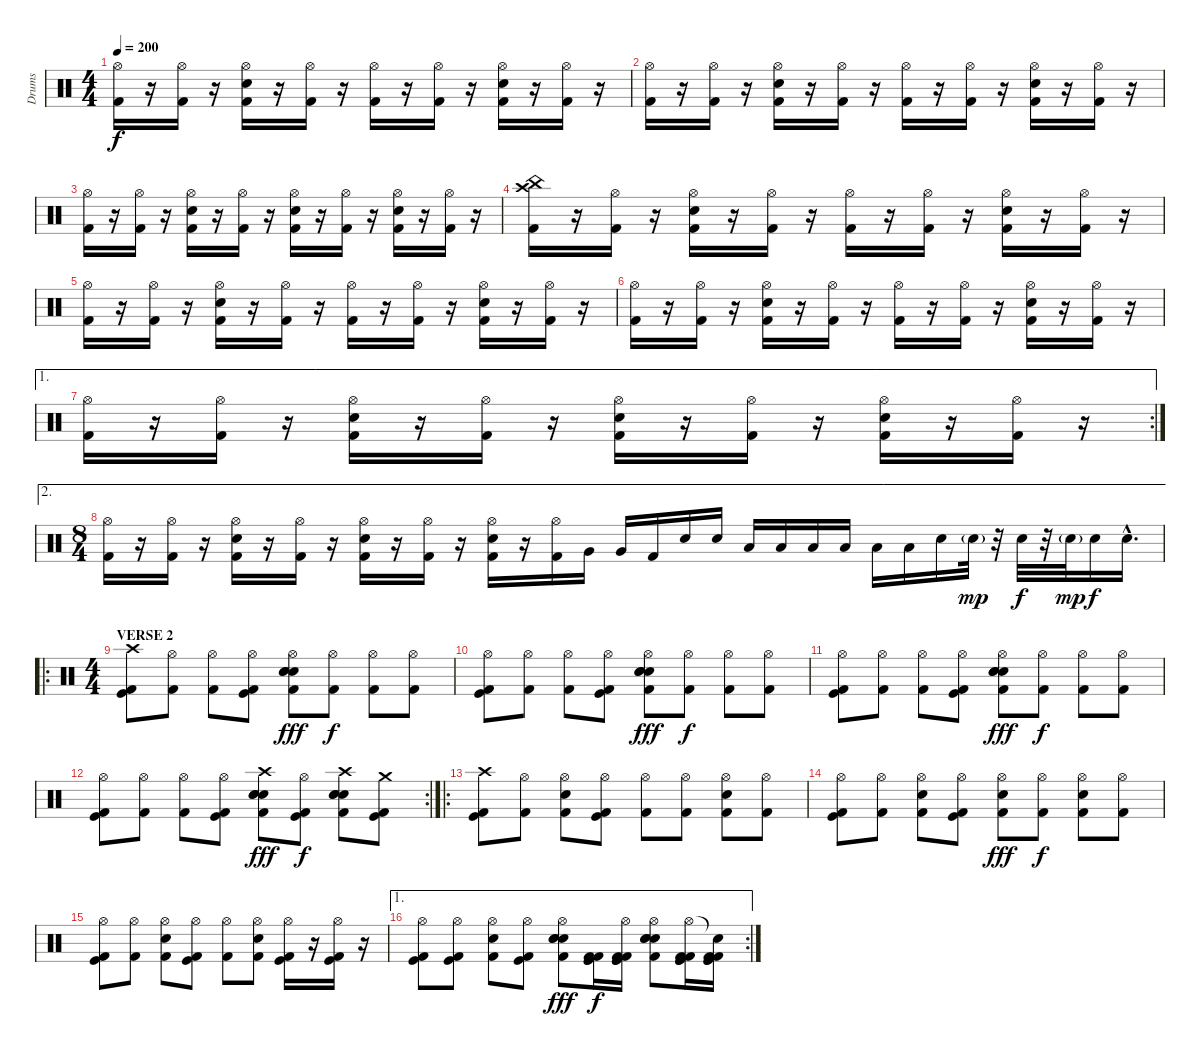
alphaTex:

\track ("Drums" "Drums") {instrument percussion}
\staff {score}
\articulation defaults
\ts (4 4)
\tempo 200
\clef neutral
\ks c
("Hi-Hat (open)" "Kick (hit) 2").16{dy f} r.16 ("Hi-Hat (open)" "Kick (hit) 2").16 r.16 ("Hi-Hat (open)" "Electric Snare (hit)" "Kick (hit) 2").16 r.16 ("Hi-Hat (open)" "Kick (hit) 2").16 r.16 ("Hi-Hat (open)" "Kick (hit) 2").16 r.16 ("Hi-Hat (open)" "Kick (hit) 2").16 r.16 ("Hi-Hat (open)" "Electric Snare (hit)" "Kick (hit) 2").16 r.16 ("Hi-Hat (open)" "Kick (hit) 2").16 r.16 |
("Hi-Hat (open)" "Kick (hit) 2").16 r.16 ("Hi-Hat (open)" "Kick (hit) 2").16 r.16 ("Hi-Hat (open)" "Electric Snare (hit)" "Kick (hit) 2").16 r.16 ("Hi-Hat (open)" "Kick (hit) 2").16 r.16 ("Hi-Hat (open)" "Kick (hit) 2").16 r.16 ("Hi-Hat (open)" "Kick (hit) 2").16 r.16 ("Hi-Hat (open)" "Electric Snare (hit)" "Kick (hit) 2").16 r.16 ("Hi-Hat (open)" "Kick (hit) 2").16 r.16 |
("Hi-Hat (open)" "Kick (hit) 2").16 r.16 ("Hi-Hat (open)" "Kick (hit) 2").16 r.16 ("Hi-Hat (open)" "Electric Snare (hit)" "Kick (hit) 2").16 r.16 ("Hi-Hat (open)" "Kick (hit) 2").16 r.16 ("Hi-Hat (open)" "Electric Snare (hit)" "Kick (hit) 2").16 r.16 ("Hi-Hat (open)" "Kick (hit) 2").16 r.16 ("Hi-Hat (open)" "Electric Snare (hit)" "Kick (hit) 2").16 r.16 ("Hi-Hat (open)" "Kick (hit) 2").16 r.16 |
("Crash high (hit)" "China (hit)" "Kick (hit) 2").16 r.16 ("Hi-Hat (open)" "Kick (hit) 2").16 r.16 ("Hi-Hat (open)" "Electric Snare (hit)" "Kick (hit) 2").16 r.16 ("Hi-Hat (open)" "Kick (hit) 2").16 r.16 ("Hi-Hat (open)" "Kick (hit) 2").16 r.16 ("Hi-Hat (open)" "Kick (hit) 2").16 r.16 ("Hi-Hat (open)" "Electric Snare (hit)" "Kick (hit) 2").16 r.16 ("Hi-Hat (open)" "Kick (hit) 2").16 r.16 |
("Hi-Hat (open)" "Kick (hit) 2").16 r.16 ("Hi-Hat (open)" "Kick (hit) 2").16 r.16 ("Hi-Hat (open)" "Electric Snare (hit)" "Kick (hit) 2").16 r.16 ("Hi-Hat (open)" "Kick (hit) 2").16 r.16 ("Hi-Hat (open)" "Kick (hit) 2").16 r.16 ("Hi-Hat (open)" "Kick (hit) 2").16 r.16 ("Hi-Hat (open)" "Electric Snare (hit)" "Kick (hit) 2").16 r.16 ("Hi-Hat (open)" "Kick (hit) 2").16 r.16 |
("Hi-Hat (open)" "Kick (hit) 2").16 r.16 ("Hi-Hat (open)" "Kick (hit) 2").16 r.16 ("Hi-Hat (open)" "Electric Snare (hit)" "Kick (hit) 2").16 r.16 ("Hi-Hat (open)" "Kick (hit) 2").16 r.16 ("Hi-Hat (open)" "Kick (hit) 2").16 r.16 ("Hi-Hat (open)" "Kick (hit) 2").16 r.16 ("Hi-Hat (open)" "Electric Snare (hit)" "Kick (hit) 2").16 r.16 ("Hi-Hat (open)" "Kick (hit) 2").16 r.16 |
\ae 1
\rc 2
("Hi-Hat (open)" "Kick (hit) 2").16 r.16 ("Hi-Hat (open)" "Kick (hit) 2").16 r.16 ("Hi-Hat (open)" "Electric Snare (hit)" "Kick (hit) 2").16 r.16 ("Hi-Hat (open)" "Kick (hit) 2").16 r.16 ("Hi-Hat (open)" "Electric Snare (hit)" "Kick (hit) 2").16 r.16 ("Hi-Hat (open)" "Kick (hit) 2").16 r.16 ("Hi-Hat (open)" "Electric Snare (hit)" "Kick (hit) 2").16 r.16 ("Hi-Hat (open)" "Kick (hit) 2").16 r.16 |
\ae 2
\ts (8 4)
("Hi-Hat (open)" "Kick (hit) 2").16 r.16 ("Hi-Hat (open)" "Kick (hit) 2").16 r.16 ("Hi-Hat (open)" "Electric Snare (hit)" "Kick (hit) 2").16 r.16 ("Hi-Hat (open)" "Kick (hit) 2").16 r.16 ("Hi-Hat (open)" "Electric Snare (hit)" "Kick (hit) 2").16 r.16 ("Hi-Hat (open)" "Kick (hit) 2").16 r.16 ("Hi-Hat (open)" "Electric Snare (hit)" "Kick (hit) 2").16 r.16 ("Hi-Hat (open)" "Kick (hit) 2").16 "Very Low Tom (hit)".16 "Very Low Tom (hit)".16 "Kick (hit) 2".16 "Electric Snare (hit)".16 "Electric Snare (hit)".16 "Low Floor Tom (hit)".16 "Low Floor Tom (hit)".16 "Low Floor Tom (hit)".16 "Low Floor Tom (hit)".16 "Low Floor Tom (hit)".16 "Low Floor Tom (hit)".16 "Electric Snare (hit)".16 "Electric Snare (hit)"{g}.32{dy mp} r.32 "Electric Snare (hit)".32{dy f} r.32 "Electric Snare (hit)"{g}.32{dy mp} "Electric Snare (hit)".16{dy f} "Electric Snare (hit)"{hac}.16{d} |
\ro
\ts (4 4)
\section ("" "VERSE 2")
("Crash high (hit)" "Kick (hit)" "Kick (hit) 2").8 ("Hi-Hat (open)" "Kick (hit) 2").8 ("Hi-Hat (open)" "Kick (hit) 2").8 ("Hi-Hat (open)" "Kick (hit)" "Kick (hit) 2").8 ("Hi-Hat (open)" "Electric Snare (hit)" "Electric Snare (hit)" "Electric Snare (hit)" "Kick (hit) 2").8{dy fff} ("Hi-Hat (open)" "Kick (hit) 2").8{dy f} ("Hi-Hat (open)" "Kick (hit) 2").8 ("Hi-Hat (open)" "Kick (hit) 2").8 |
("Hi-Hat (open)" "Kick (hit)" "Kick (hit) 2").8 ("Hi-Hat (open)" "Kick (hit) 2").8 ("Hi-Hat (open)" "Kick (hit) 2").8 ("Hi-Hat (open)" "Kick (hit)" "Kick (hit) 2").8 ("Hi-Hat (open)" "Electric Snare (hit)" "Electric Snare (hit)" "Electric Snare (hit)" "Kick (hit) 2").8{dy fff} ("Hi-Hat (open)" "Kick (hit) 2").8{dy f} ("Hi-Hat (open)" "Kick (hit) 2").8 ("Hi-Hat (open)" "Kick (hit) 2").8 |
("Hi-Hat (open)" "Kick (hit)" "Kick (hit) 2").8 ("Hi-Hat (open)" "Kick (hit) 2").8 ("Hi-Hat (open)" "Kick (hit) 2").8 ("Hi-Hat (open)" "Kick (hit)" "Kick (hit) 2").8 ("Hi-Hat (open)" "Electric Snare (hit)" "Electric Snare (hit)" "Electric Snare (hit)" "Kick (hit) 2").8{dy fff} ("Hi-Hat (open)" "Kick (hit) 2").8{dy f} ("Hi-Hat (open)" "Kick (hit) 2").8 ("Hi-Hat (open)" "Kick (hit) 2").8 |
\rc 2
("Hi-Hat (open)" "Kick (hit)" "Kick (hit) 2").8 ("Hi-Hat (open)" "Kick (hit) 2").8 ("Hi-Hat (open)" "Kick (hit) 2").8 ("Hi-Hat (open)" "Kick (hit)" "Kick (hit) 2").8 ("Crash high (hit)" "Electric Snare (hit)" "Electric Snare (hit)" "Electric Snare (hit)" "Kick (hit) 2").8{dy fff} ("Hi-Hat (open)" "Kick (hit)" "Kick (hit) 2").8{dy f} ("Crash high (hit)" "Electric Snare (hit)" "Electric Snare (hit)" "Electric Snare (hit)" "Kick (hit) 2").8 ("Crash medium (hit)" "Kick (hit)" "Kick (hit) 2").8 |
\ro
("Crash high (hit)" "Kick (hit)" "Kick (hit) 2").8 ("Hi-Hat (open)" "Kick (hit) 2").8 ("Hi-Hat (open)" "Electric Snare (hit)" "Kick (hit) 2").8 ("Hi-Hat (open)" "Kick (hit)" "Kick (hit) 2").8 ("Hi-Hat (open)" "Kick (hit) 2").8 ("Hi-Hat (open)" "Kick (hit) 2").8 ("Hi-Hat (open)" "Electric Snare (hit)" "Kick (hit) 2").8 ("Hi-Hat (open)" "Kick (hit) 2").8 |
("Hi-Hat (open)" "Kick (hit)" "Kick (hit) 2").8 ("Hi-Hat (open)" "Kick (hit) 2").8 ("Hi-Hat (open)" "Electric Snare (hit)" "Kick (hit) 2").8 ("Hi-Hat (open)" "Kick (hit)" "Kick (hit) 2").8 ("Hi-Hat (open)" "Electric Snare (hit)" "Kick (hit) 2").8{dy fff} ("Hi-Hat (open)" "Kick (hit) 2").8{dy f} ("Hi-Hat (open)" "Electric Snare (hit)" "Kick (hit) 2").8 ("Hi-Hat (open)" "Kick (hit) 2").8 |
("Hi-Hat (open)" "Kick (hit)" "Kick (hit) 2").8 ("Hi-Hat (open)" "Kick (hit) 2").8 ("Hi-Hat (open)" "Electric Snare (hit)" "Kick (hit) 2").8 ("Hi-Hat (open)" "Kick (hit)" "Kick (hit) 2").8 ("Hi-Hat (open)" "Kick (hit) 2").8 ("Hi-Hat (open)" "Electric Snare (hit)" "Kick (hit) 2").8 ("Hi-Hat (open)" "Kick (hit)" "Kick (hit) 2").16 r.16 ("Hi-Hat (open)" "Kick (hit)" "Kick (hit) 2").16 r.16 |
\ae 1
\rc 2
("Hi-Hat (open)" "Kick (hit)" "Kick (hit) 2").8 ("Hi-Hat (open)" "Kick (hit)" "Kick (hit) 2").8 ("Hi-Hat (open)" "Electric Snare (hit)" "Kick (hit) 2").8 ("Hi-Hat (open)" "Kick (hit)" "Kick (hit) 2").8 ("Hi-Hat (open)" "Electric Snare (hit)" "Electric Snare (hit)" "Electric Snare (hit)" "Kick (hit) 2").8{dy fff} ("Kick (hit) 2" "Kick (hit)" "Kick (hit)" "Kick (hit) 2").16{dy f} ("Hi-Hat (open)" "Kick (hit) 2" "Kick (hit)" "Kick (hit)" "Kick (hit) 2").16 ("Hi-Hat (open)" "Electric Snare (hit)" "Electric Snare (hit)" "Electric Snare (hit)" "Kick (hit) 2").8 ("Hi-Hat (open)" "Kick (hit) 2" "Kick (hit)" "Kick (hit)" "Kick (hit) 2").16 ("Snare (hit)"{t} "Kick (hit) 2" "Kick (hit)" "Kick (hit)" "Kick (hit) 2").16
